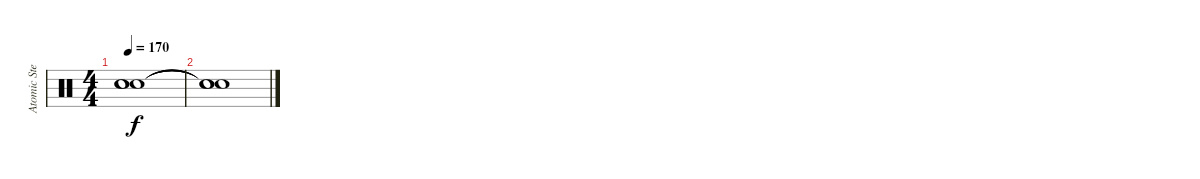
\track ("Atomic Steif" "Atomic Ste") {instrument percussion}
\staff {score}
\articulation defaults
\ts (4 4)
\tempo 170
\clef neutral
\ks c
("Snare (hit)"{t} "Snare (hit)"{t} "Snare (hit)"{t}).1{dy f} |
("Snare (hit)"{t} "Snare (hit)"{t} "Snare (hit)"{t}).1
